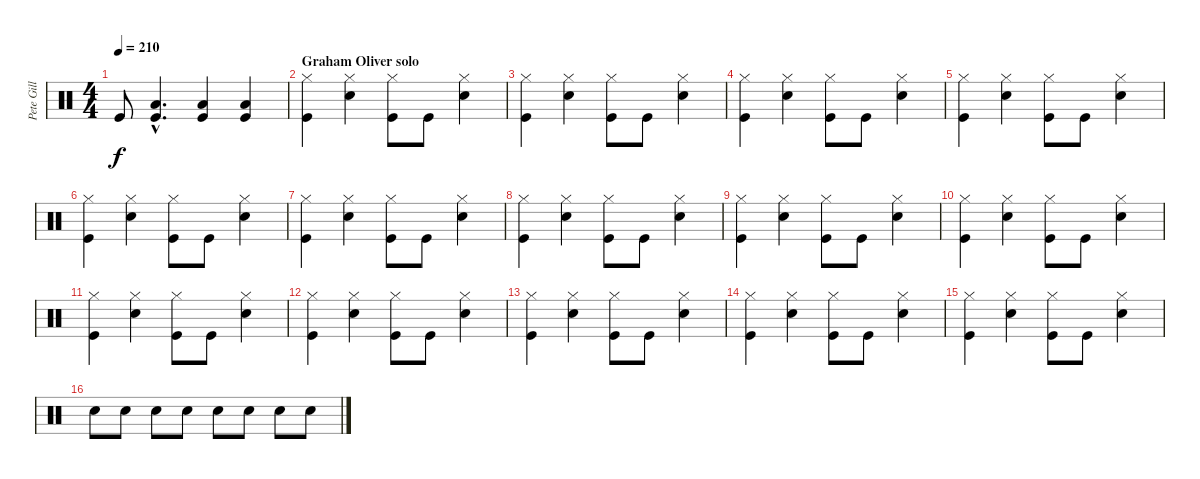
\track ("Pete Gill" "Pete Gill") {instrument percussion}
\staff {score}
\articulation defaults
\ts (4 4)
\tempo 210
\clef neutral
\ks c "Kick (hit)"{t}.8{dy f}
("Low Tom (hit)"{hac} "Kick (hit)"{hac}).4{d} ("Low Tom (hit)" "Kick (hit)").4 ("Low Tom (hit)" "Kick (hit)").4 |
\section ("" "Graham Oliver solo")
("Hi-Hat (closed)" "Kick (hit)").4 ("Hi-Hat (closed)" "Snare (hit) 2").4 ("Hi-Hat (closed)" "Kick (hit)").8 "Kick (hit)".8 ("Hi-Hat (closed)" "Snare (hit) 2").4 |
("Hi-Hat (closed)" "Kick (hit)").4 ("Hi-Hat (closed)" "Snare (hit) 2").4 ("Hi-Hat (closed)" "Kick (hit)").8 "Kick (hit)".8 ("Hi-Hat (closed)" "Snare (hit) 2").4 |
("Hi-Hat (closed)" "Kick (hit)").4 ("Hi-Hat (closed)" "Snare (hit) 2").4 ("Hi-Hat (closed)" "Kick (hit)").8 "Kick (hit)".8 ("Hi-Hat (closed)" "Snare (hit) 2").4 |
("Hi-Hat (closed)" "Kick (hit)").4 ("Hi-Hat (closed)" "Snare (hit) 2").4 ("Hi-Hat (closed)" "Kick (hit)").8 "Kick (hit)".8 ("Hi-Hat (closed)" "Snare (hit) 2").4 |
("Hi-Hat (closed)" "Kick (hit)").4 ("Hi-Hat (closed)" "Snare (hit) 2").4 ("Hi-Hat (closed)" "Kick (hit)").8 "Kick (hit)".8 ("Hi-Hat (closed)" "Snare (hit) 2").4 |
("Hi-Hat (closed)" "Kick (hit)").4 ("Hi-Hat (closed)" "Snare (hit) 2").4 ("Hi-Hat (closed)" "Kick (hit)").8 "Kick (hit)".8 ("Hi-Hat (closed)" "Snare (hit) 2").4 |
("Hi-Hat (closed)" "Kick (hit)").4 ("Hi-Hat (closed)" "Snare (hit) 2").4 ("Hi-Hat (closed)" "Kick (hit)").8 "Kick (hit)".8 ("Hi-Hat (closed)" "Snare (hit) 2").4 |
("Hi-Hat (closed)" "Kick (hit)").4 ("Hi-Hat (closed)" "Snare (hit) 2").4 ("Hi-Hat (closed)" "Kick (hit)").8 "Kick (hit)".8 ("Hi-Hat (closed)" "Snare (hit) 2").4 |
("Hi-Hat (closed)" "Kick (hit)").4 ("Hi-Hat (closed)" "Snare (hit) 2").4 ("Hi-Hat (closed)" "Kick (hit)").8 "Kick (hit)".8 ("Hi-Hat (closed)" "Snare (hit) 2").4 |
("Hi-Hat (closed)" "Kick (hit)").4 ("Hi-Hat (closed)" "Snare (hit) 2").4 ("Hi-Hat (closed)" "Kick (hit)").8 "Kick (hit)".8 ("Hi-Hat (closed)" "Snare (hit) 2").4 |
("Hi-Hat (closed)" "Kick (hit)").4 ("Hi-Hat (closed)" "Snare (hit) 2").4 ("Hi-Hat (closed)" "Kick (hit)").8 "Kick (hit)".8 ("Hi-Hat (closed)" "Snare (hit) 2").4 |
("Hi-Hat (closed)" "Kick (hit)").4 ("Hi-Hat (closed)" "Snare (hit) 2").4 ("Hi-Hat (closed)" "Kick (hit)").8 "Kick (hit)".8 ("Hi-Hat (closed)" "Snare (hit) 2").4 |
("Hi-Hat (closed)" "Kick (hit)").4 ("Hi-Hat (closed)" "Snare (hit) 2").4 ("Hi-Hat (closed)" "Kick (hit)").8 "Kick (hit)".8 ("Hi-Hat (closed)" "Snare (hit) 2").4 |
("Hi-Hat (closed)" "Kick (hit)").4 ("Hi-Hat (closed)" "Snare (hit) 2").4 ("Hi-Hat (closed)" "Kick (hit)").8 "Kick (hit)".8 ("Hi-Hat (closed)" "Snare (hit) 2").4 |
"Snare (hit) 2".8 "Snare (hit) 2".8 "Snare (hit) 2".8 "Snare (hit) 2".8 "Snare (hit) 2".8 "Snare (hit) 2".8 "Snare (hit) 2".8 "Snare (hit) 2".8
